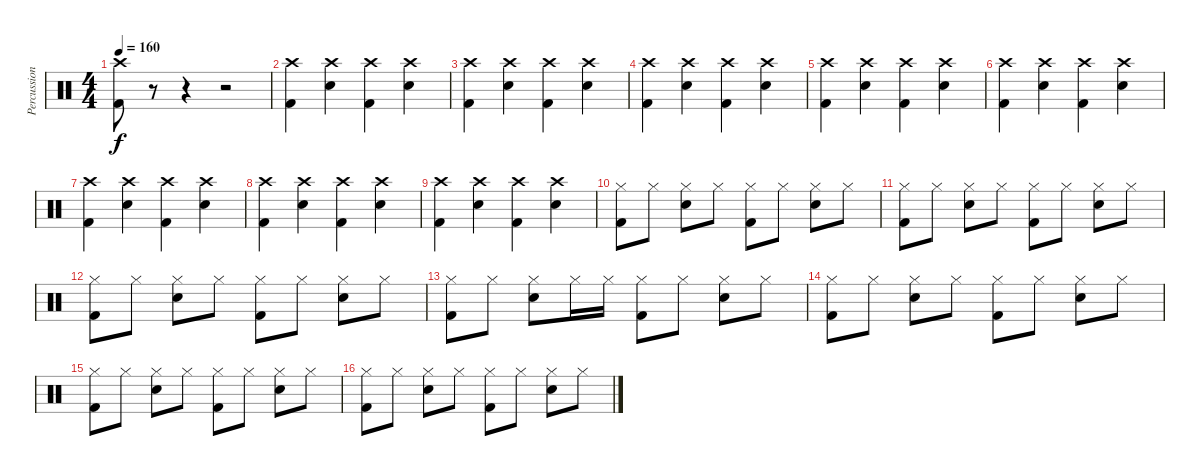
\track ("Percussions" "Percussion") {instrument percussion}
\staff {score}
\articulation defaults
\ts (4 4)
\tempo 160
\clef neutral
\ks c
("Kick (hit) 2" "Crash high (hit)").8{dy f} r.8 r.4 r.2 |
("Kick (hit) 2" "Crash high (hit)").4 ("Snare (hit) 2" "Crash high (hit)").4 ("Kick (hit) 2" "Crash high (hit)").4 ("Snare (hit) 2" "Crash high (hit)").4 |
("Kick (hit) 2" "Crash high (hit)").4 ("Snare (hit) 2" "Crash high (hit)").4 ("Kick (hit) 2" "Crash high (hit)").4 ("Snare (hit) 2" "Crash high (hit)").4 |
("Kick (hit) 2" "Crash high (hit)").4 ("Snare (hit) 2" "Crash high (hit)").4 ("Kick (hit) 2" "Crash high (hit)").4 ("Snare (hit) 2" "Crash high (hit)").4 |
("Kick (hit) 2" "Crash high (hit)").4 ("Snare (hit) 2" "Crash high (hit)").4 ("Kick (hit) 2" "Crash high (hit)").4 ("Snare (hit) 2" "Crash high (hit)").4 |
("Kick (hit) 2" "Crash high (hit)").4 ("Snare (hit) 2" "Crash high (hit)").4 ("Kick (hit) 2" "Crash high (hit)").4 ("Snare (hit) 2" "Crash high (hit)").4 |
("Kick (hit) 2" "Crash high (hit)").4 ("Snare (hit) 2" "Crash high (hit)").4 ("Kick (hit) 2" "Crash high (hit)").4 ("Snare (hit) 2" "Crash high (hit)").4 |
("Kick (hit) 2" "Crash high (hit)").4 ("Snare (hit) 2" "Crash high (hit)").4 ("Kick (hit) 2" "Crash high (hit)").4 ("Snare (hit) 2" "Crash high (hit)").4 |
("Kick (hit) 2" "Crash high (hit)").4 ("Snare (hit) 2" "Crash high (hit)").4 ("Kick (hit) 2" "Crash high (hit)").4 ("Snare (hit) 2" "Crash high (hit)").4 |
("Kick (hit) 2" "Hi-Hat (closed)").8 "Hi-Hat (closed)".8 ("Snare (hit) 2" "Hi-Hat (closed)").8 "Hi-Hat (closed)".8 ("Kick (hit) 2" "Hi-Hat (closed)").8 "Hi-Hat (closed)".8 ("Snare (hit) 2" "Hi-Hat (closed)").8 "Hi-Hat (closed)".8 |
("Kick (hit) 2" "Hi-Hat (closed)").8 "Hi-Hat (closed)".8 ("Snare (hit) 2" "Hi-Hat (closed)").8 "Hi-Hat (closed)".8 ("Kick (hit) 2" "Hi-Hat (closed)").8 "Hi-Hat (closed)".8 ("Snare (hit) 2" "Hi-Hat (closed)").8 "Hi-Hat (closed)".8 |
("Kick (hit) 2" "Hi-Hat (closed)").8 "Hi-Hat (closed)".8 ("Snare (hit) 2" "Hi-Hat (closed)").8 "Hi-Hat (closed)".8 ("Kick (hit) 2" "Hi-Hat (closed)").8 "Hi-Hat (closed)".8 ("Snare (hit) 2" "Hi-Hat (closed)").8 "Hi-Hat (closed)".8 |
("Kick (hit) 2" "Hi-Hat (closed)").8 "Hi-Hat (closed)".8 ("Snare (hit) 2" "Hi-Hat (closed)").8 "Hi-Hat (closed)".16 "Hi-Hat (closed)".16 ("Kick (hit) 2" "Hi-Hat (closed)").8 "Hi-Hat (closed)".8 ("Snare (hit) 2" "Hi-Hat (closed)").8 "Hi-Hat (closed)".8 |
("Kick (hit) 2" "Hi-Hat (closed)").8 "Hi-Hat (closed)".8 ("Snare (hit) 2" "Hi-Hat (closed)").8 "Hi-Hat (closed)".8 ("Kick (hit) 2" "Hi-Hat (closed)").8 "Hi-Hat (closed)".8 ("Snare (hit) 2" "Hi-Hat (closed)").8 "Hi-Hat (closed)".8 |
("Kick (hit) 2" "Hi-Hat (closed)").8 "Hi-Hat (closed)".8 ("Snare (hit) 2" "Hi-Hat (closed)").8 "Hi-Hat (closed)".8 ("Kick (hit) 2" "Hi-Hat (closed)").8 "Hi-Hat (closed)".8 ("Snare (hit) 2" "Hi-Hat (closed)").8 "Hi-Hat (closed)".8 |
("Kick (hit) 2" "Hi-Hat (closed)").8 "Hi-Hat (closed)".8 ("Snare (hit) 2" "Hi-Hat (closed)").8 "Hi-Hat (closed)".8 ("Kick (hit) 2" "Hi-Hat (closed)").8 "Hi-Hat (closed)".8 ("Snare (hit) 2" "Hi-Hat (closed)").8 "Hi-Hat (closed)".8
